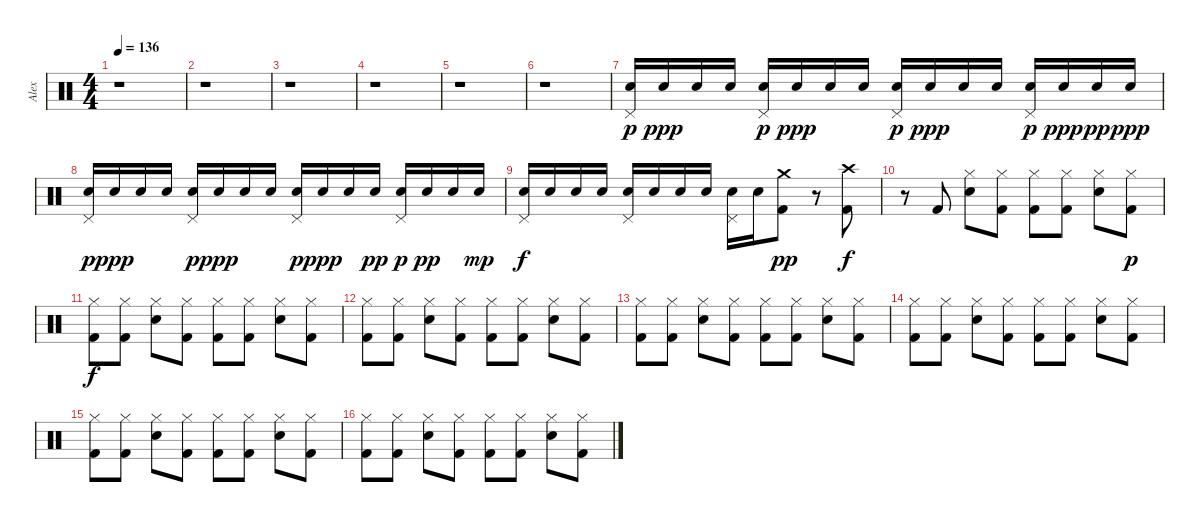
\track ("Alex" "Alex") {instrument percussion}
\staff {score}
\articulation defaults
\ts (4 4)
\tempo 136
\clef neutral
\ks c
r.1{dy p} |
r.1 |
r.1 |
r.1 |
r.1 |
r.1 |
("Snare (hit) 2" "Pedal Hi-Hat (hit)").16 "Snare (hit) 2".16{dy ppp} "Snare (hit) 2".16 "Snare (hit) 2".16 ("Pedal Hi-Hat (hit)" "Snare (hit) 2").16{dy p} "Snare (hit) 2".16{dy ppp} "Snare (hit) 2".16 "Snare (hit) 2".16 ("Pedal Hi-Hat (hit)" "Snare (hit) 2").16{dy p} "Snare (hit) 2".16{dy ppp} "Snare (hit) 2".16 "Snare (hit) 2".16 ("Snare (hit) 2" "Pedal Hi-Hat (hit)").16{dy p} "Snare (hit) 2".16{dy ppp} "Snare (hit) 2".16{dy pp} "Snare (hit) 2".16{dy ppp} |
("Snare (hit) 2" "Pedal Hi-Hat (hit)").16{dy p} "Snare (hit) 2".16{dy ppp} "Snare (hit) 2".16 "Snare (hit) 2".16 ("Snare (hit) 2" "Pedal Hi-Hat (hit)").16{dy p} "Snare (hit) 2".16{dy ppp} "Snare (hit) 2".16 "Snare (hit) 2".16 ("Snare (hit) 2" "Pedal Hi-Hat (hit)").16{dy p} "Snare (hit) 2".16{dy ppp} "Snare (hit) 2".16 "Snare (hit) 2".16{dy pp} ("Snare (hit) 2" "Pedal Hi-Hat (hit)").16{dy p} "Snare (hit) 2".16{dy pp} "Snare (hit) 2".16 "Snare (hit) 2".16{dy mp} |
("Snare (hit) 2" "Pedal Hi-Hat (hit)").16{dy f} "Snare (hit) 2".16 "Snare (hit) 2".16 "Snare (hit) 2".16 ("Snare (hit) 2" "Pedal Hi-Hat (hit)").16 "Snare (hit) 2".16 "Snare (hit) 2".16 "Snare (hit) 2".16 ("Snare (hit) 2" "Pedal Hi-Hat (hit)").16 "Snare (hit) 2".16 ("Crash medium (hit)" "Kick (hit) 2").8{dy pp} r.8 ("Kick (hit) 2" "Crash high (hit)").8{dy f} |
r.8 "Kick (hit) 2".8 ("Hi-Hat (closed)" "Snare (hit) 2").8 ("Hi-Hat (closed)" "Kick (hit) 2").8 ("Kick (hit) 2" "Hi-Hat (closed)").8 ("Hi-Hat (closed)" "Kick (hit) 2").8 ("Hi-Hat (closed)" "Snare (hit) 2").8 ("Hi-Hat (closed)" "Kick (hit) 2").8{dy p} |
("Hi-Hat (closed)" "Kick (hit) 2").8{dy f} ("Hi-Hat (closed)" "Kick (hit) 2").8 ("Hi-Hat (closed)" "Snare (hit) 2").8 ("Kick (hit) 2" "Hi-Hat (closed)").8 ("Kick (hit) 2" "Hi-Hat (closed)").8 ("Hi-Hat (closed)" "Kick (hit) 2").8 ("Snare (hit) 2" "Hi-Hat (closed)").8 ("Kick (hit) 2" "Hi-Hat (closed)").8 |
("Kick (hit) 2" "Hi-Hat (closed)").8 ("Kick (hit) 2" "Hi-Hat (closed)").8 ("Hi-Hat (closed)" "Snare (hit) 2").8 ("Kick (hit) 2" "Hi-Hat (closed)").8 ("Kick (hit) 2" "Hi-Hat (closed)").8 ("Kick (hit) 2" "Hi-Hat (closed)").8 ("Snare (hit) 2" "Hi-Hat (closed)").8 ("Hi-Hat (closed)" "Kick (hit) 2").8 |
("Kick (hit) 2" "Hi-Hat (closed)").8 ("Kick (hit) 2" "Hi-Hat (closed)").8 ("Snare (hit) 2" "Hi-Hat (closed)").8 ("Kick (hit) 2" "Hi-Hat (closed)").8 ("Kick (hit) 2" "Hi-Hat (closed)").8 ("Kick (hit) 2" "Hi-Hat (closed)").8 ("Hi-Hat (closed)" "Snare (hit) 2").8 ("Hi-Hat (closed)" "Kick (hit) 2").8 |
("Kick (hit) 2" "Hi-Hat (closed)").8 ("Kick (hit) 2" "Hi-Hat (closed)").8 ("Hi-Hat (closed)" "Snare (hit) 2").8 ("Kick (hit) 2" "Hi-Hat (closed)").8 ("Kick (hit) 2" "Hi-Hat (closed)").8 ("Kick (hit) 2" "Hi-Hat (closed)").8 ("Hi-Hat (closed)" "Snare (hit) 2").8 ("Kick (hit) 2" "Hi-Hat (closed)").8 |
("Kick (hit) 2" "Hi-Hat (closed)").8 ("Kick (hit) 2" "Hi-Hat (closed)").8 ("Hi-Hat (closed)" "Snare (hit) 2").8 ("Kick (hit) 2" "Hi-Hat (closed)").8 ("Kick (hit) 2" "Hi-Hat (closed)").8 ("Kick (hit) 2" "Hi-Hat (closed)").8 ("Hi-Hat (closed)" "Snare (hit) 2").8 ("Hi-Hat (closed)" "Kick (hit) 2").8 |
("Kick (hit) 2" "Hi-Hat (closed)").8 ("Kick (hit) 2" "Hi-Hat (closed)").8 ("Hi-Hat (closed)" "Snare (hit) 2").8 ("Kick (hit) 2" "Hi-Hat (closed)").8 ("Kick (hit) 2" "Hi-Hat (closed)").8 ("Kick (hit) 2" "Hi-Hat (closed)").8 ("Hi-Hat (closed)" "Snare (hit) 2").8 ("Kick (hit) 2" "Hi-Hat (closed)").8
